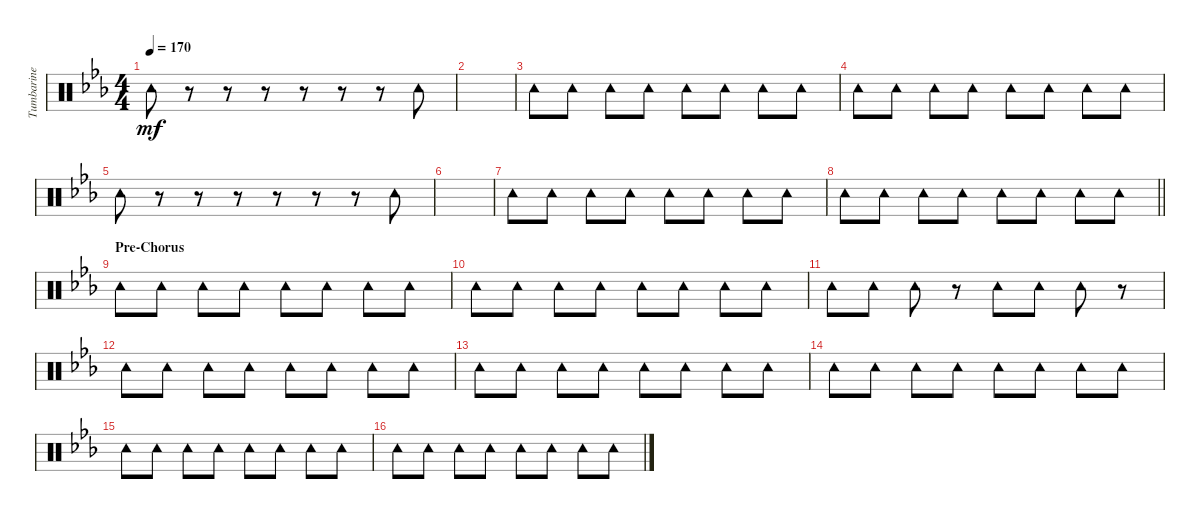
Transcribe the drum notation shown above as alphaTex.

\track ("Tumbarine" "Tumbarine") {solo instrument percussion}
\staff {score}
\articulation defaults
\ts (4 4)
\tempo 170
\clef neutral
\ks eb "Tambourine (hit)".8{dy mf}
r.8 r.8 r.8 r.8 r.8 r.8 "Tambourine (hit)".8 |
|
"Tambourine (hit)".8 "Tambourine (hit)".8 "Tambourine (hit)".8 "Tambourine (hit)".8 "Tambourine (hit)".8 "Tambourine (hit)".8 "Tambourine (hit)".8 "Tambourine (hit)".8 |
"Tambourine (hit)".8 "Tambourine (hit)".8 "Tambourine (hit)".8 "Tambourine (hit)".8 "Tambourine (hit)".8 "Tambourine (hit)".8 "Tambourine (hit)".8 "Tambourine (hit)".8 |
"Tambourine (hit)".8 r.8 r.8 r.8 r.8 r.8 r.8 "Tambourine (hit)".8 |
|
"Tambourine (hit)".8 "Tambourine (hit)".8 "Tambourine (hit)".8 "Tambourine (hit)".8 "Tambourine (hit)".8 "Tambourine (hit)".8 "Tambourine (hit)".8 "Tambourine (hit)".8 |
\barLineRight lightlight "Tambourine (hit)".8 "Tambourine (hit)".8 "Tambourine (hit)".8 "Tambourine (hit)".8 "Tambourine (hit)".8 "Tambourine (hit)".8 "Tambourine (hit)".8 "Tambourine (hit)".8
|
\section ("" "Pre-Chorus")
"Tambourine (hit)".8 "Tambourine (hit)".8 "Tambourine (hit)".8 "Tambourine (hit)".8 "Tambourine (hit)".8 "Tambourine (hit)".8 "Tambourine (hit)".8 "Tambourine (hit)".8 |
"Tambourine (hit)".8 "Tambourine (hit)".8 "Tambourine (hit)".8 "Tambourine (hit)".8 "Tambourine (hit)".8 "Tambourine (hit)".8 "Tambourine (hit)".8 "Tambourine (hit)".8 |
"Tambourine (hit)".8 "Tambourine (hit)".8 "Tambourine (hit)".8 r.8 "Tambourine (hit)".8 "Tambourine (hit)".8 "Tambourine (hit)".8 r.8 |
"Tambourine (hit)".8 "Tambourine (hit)".8 "Tambourine (hit)".8 "Tambourine (hit)".8 "Tambourine (hit)".8 "Tambourine (hit)".8 "Tambourine (hit)".8 "Tambourine (hit)".8 |
"Tambourine (hit)".8 "Tambourine (hit)".8 "Tambourine (hit)".8 "Tambourine (hit)".8 "Tambourine (hit)".8 "Tambourine (hit)".8 "Tambourine (hit)".8 "Tambourine (hit)".8 |
"Tambourine (hit)".8 "Tambourine (hit)".8 "Tambourine (hit)".8 "Tambourine (hit)".8 "Tambourine (hit)".8 "Tambourine (hit)".8 "Tambourine (hit)".8 "Tambourine (hit)".8 |
"Tambourine (hit)".8 "Tambourine (hit)".8 "Tambourine (hit)".8 "Tambourine (hit)".8 "Tambourine (hit)".8 "Tambourine (hit)".8 "Tambourine (hit)".8 "Tambourine (hit)".8 |
"Tambourine (hit)".8 "Tambourine (hit)".8 "Tambourine (hit)".8 "Tambourine (hit)".8 "Tambourine (hit)".8 "Tambourine (hit)".8 "Tambourine (hit)".8 "Tambourine (hit)".8
